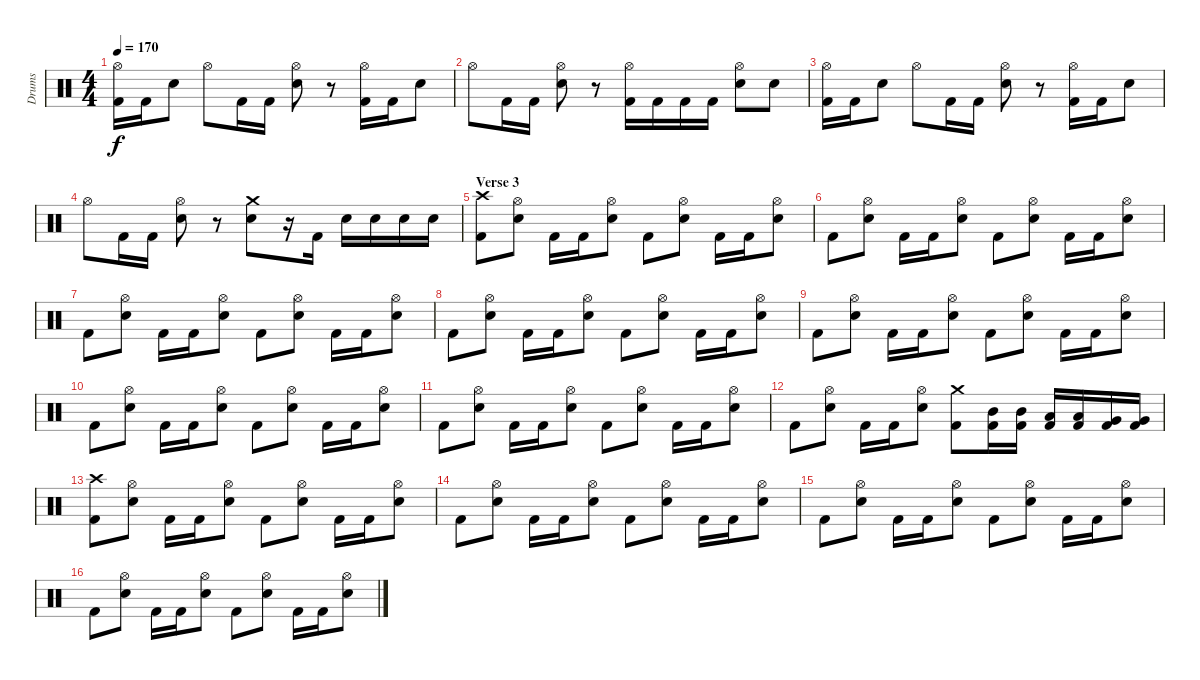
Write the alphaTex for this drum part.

\track ("Drums" "Drums") {instrument percussion}
\staff {score}
\articulation defaults
\ts (4 4)
\tempo 170
\clef neutral
\ks c
("Hi-Hat (open)" "Kick (hit) 2").16{dy f} "Kick (hit) 2".16 "Snare (hit) 2".8 "Hi-Hat (open)".8 "Kick (hit) 2".16 "Kick (hit) 2".16 ("Hi-Hat (open)" "Snare (hit) 2").8 r.8 ("Hi-Hat (open)" "Kick (hit) 2").16 "Kick (hit) 2".16 "Snare (hit) 2".8 |
"Hi-Hat (open)".8 "Kick (hit) 2".16 "Kick (hit) 2".16 ("Hi-Hat (open)" "Snare (hit) 2").8 r.8 ("Hi-Hat (open)" "Kick (hit) 2").16 "Kick (hit) 2".16 "Kick (hit) 2".16 "Kick (hit) 2".16 ("Hi-Hat (open)" "Snare (hit) 2").8 "Snare (hit) 2".8 |
("Hi-Hat (open)" "Kick (hit) 2").16 "Kick (hit) 2".16 "Snare (hit) 2".8 "Hi-Hat (open)".8 "Kick (hit) 2".16 "Kick (hit) 2".16 ("Hi-Hat (open)" "Snare (hit) 2").8 r.8 ("Hi-Hat (open)" "Kick (hit) 2").16 "Kick (hit) 2".16 "Snare (hit) 2".8 |
"Hi-Hat (open)".8 "Kick (hit) 2".16 "Kick (hit) 2".16 ("Hi-Hat (open)" "Snare (hit) 2").8 r.8 ("Crash medium (hit)" "Snare (hit) 2").8 r.16 "Kick (hit) 2".16 "Snare (hit) 2".16 "Snare (hit) 2".16 "Snare (hit) 2".16 "Snare (hit) 2".16 |
\section ("" "Verse 3")
("Crash high (hit)" "Kick (hit) 2").8 ("Hi-Hat (open)" "Snare (hit) 2").8 "Kick (hit) 2".16 "Kick (hit) 2".16 ("Hi-Hat (open)" "Snare (hit) 2").8 "Kick (hit) 2".8 ("Hi-Hat (open)" "Snare (hit) 2").8 "Kick (hit) 2".16 "Kick (hit) 2".16 ("Hi-Hat (open)" "Snare (hit) 2").8 |
"Kick (hit) 2".8 ("Hi-Hat (open)" "Snare (hit) 2").8 "Kick (hit) 2".16 "Kick (hit) 2".16 ("Hi-Hat (open)" "Snare (hit) 2").8 "Kick (hit) 2".8 ("Hi-Hat (open)" "Snare (hit) 2").8 "Kick (hit) 2".16 "Kick (hit) 2".16 ("Hi-Hat (open)" "Snare (hit) 2").8 |
"Kick (hit) 2".8 ("Hi-Hat (open)" "Snare (hit) 2").8 "Kick (hit) 2".16 "Kick (hit) 2".16 ("Hi-Hat (open)" "Snare (hit) 2").8 "Kick (hit) 2".8 ("Hi-Hat (open)" "Snare (hit) 2").8 "Kick (hit) 2".16 "Kick (hit) 2".16 ("Hi-Hat (open)" "Snare (hit) 2").8 |
"Kick (hit) 2".8 ("Hi-Hat (open)" "Snare (hit) 2").8 "Kick (hit) 2".16 "Kick (hit) 2".16 ("Hi-Hat (open)" "Snare (hit) 2").8 "Kick (hit) 2".8 ("Hi-Hat (open)" "Snare (hit) 2").8 "Kick (hit) 2".16 "Kick (hit) 2".16 ("Hi-Hat (open)" "Snare (hit) 2").8 |
"Kick (hit) 2".8 ("Hi-Hat (open)" "Snare (hit) 2").8 "Kick (hit) 2".16 "Kick (hit) 2".16 ("Hi-Hat (open)" "Snare (hit) 2").8 "Kick (hit) 2".8 ("Hi-Hat (open)" "Snare (hit) 2").8 "Kick (hit) 2".16 "Kick (hit) 2".16 ("Hi-Hat (open)" "Snare (hit) 2").8 |
"Kick (hit) 2".8 ("Hi-Hat (open)" "Snare (hit) 2").8 "Kick (hit) 2".16 "Kick (hit) 2".16 ("Hi-Hat (open)" "Snare (hit) 2").8 "Kick (hit) 2".8 ("Hi-Hat (open)" "Snare (hit) 2").8 "Kick (hit) 2".16 "Kick (hit) 2".16 ("Hi-Hat (open)" "Snare (hit) 2").8 |
"Kick (hit) 2".8 ("Hi-Hat (open)" "Snare (hit) 2").8 "Kick (hit) 2".16 "Kick (hit) 2".16 ("Hi-Hat (open)" "Snare (hit) 2").8 "Kick (hit) 2".8 ("Hi-Hat (open)" "Snare (hit) 2").8 "Kick (hit) 2".16 "Kick (hit) 2".16 ("Hi-Hat (open)" "Snare (hit) 2").8 |
"Kick (hit) 2".8 ("Hi-Hat (open)" "Snare (hit) 2").8 "Kick (hit) 2".16 "Kick (hit) 2".16 ("Hi-Hat (open)" "Snare (hit) 2").8 ("Crash medium (hit)" "Kick (hit) 2").8 ("Mid Tom (hit)" "Kick (hit) 2").16 ("Mid Tom (hit)" "Kick (hit) 2").16 ("Low Tom (hit)" "Kick (hit) 2").16 ("Low Tom (hit)" "Kick (hit) 2").16 ("Very Low Tom (hit)" "Kick (hit) 2").16 ("Very Low Tom (hit)" "Kick (hit) 2").16 |
("Crash high (hit)" "Kick (hit) 2").8 ("Hi-Hat (open)" "Snare (hit) 2").8 "Kick (hit) 2".16 "Kick (hit) 2".16 ("Hi-Hat (open)" "Snare (hit) 2").8 "Kick (hit) 2".8 ("Hi-Hat (open)" "Snare (hit) 2").8 "Kick (hit) 2".16 "Kick (hit) 2".16 ("Hi-Hat (open)" "Snare (hit) 2").8 |
"Kick (hit) 2".8 ("Hi-Hat (open)" "Snare (hit) 2").8 "Kick (hit) 2".16 "Kick (hit) 2".16 ("Hi-Hat (open)" "Snare (hit) 2").8 "Kick (hit) 2".8 ("Hi-Hat (open)" "Snare (hit) 2").8 "Kick (hit) 2".16 "Kick (hit) 2".16 ("Hi-Hat (open)" "Snare (hit) 2").8 |
"Kick (hit) 2".8 ("Hi-Hat (open)" "Snare (hit) 2").8 "Kick (hit) 2".16 "Kick (hit) 2".16 ("Hi-Hat (open)" "Snare (hit) 2").8 "Kick (hit) 2".8 ("Hi-Hat (open)" "Snare (hit) 2").8 "Kick (hit) 2".16 "Kick (hit) 2".16 ("Hi-Hat (open)" "Snare (hit) 2").8 |
"Kick (hit) 2".8 ("Hi-Hat (open)" "Snare (hit) 2").8 "Kick (hit) 2".16 "Kick (hit) 2".16 ("Hi-Hat (open)" "Snare (hit) 2").8 "Kick (hit) 2".8 ("Hi-Hat (open)" "Snare (hit) 2").8 "Kick (hit) 2".16 "Kick (hit) 2".16 ("Hi-Hat (open)" "Snare (hit) 2").8
